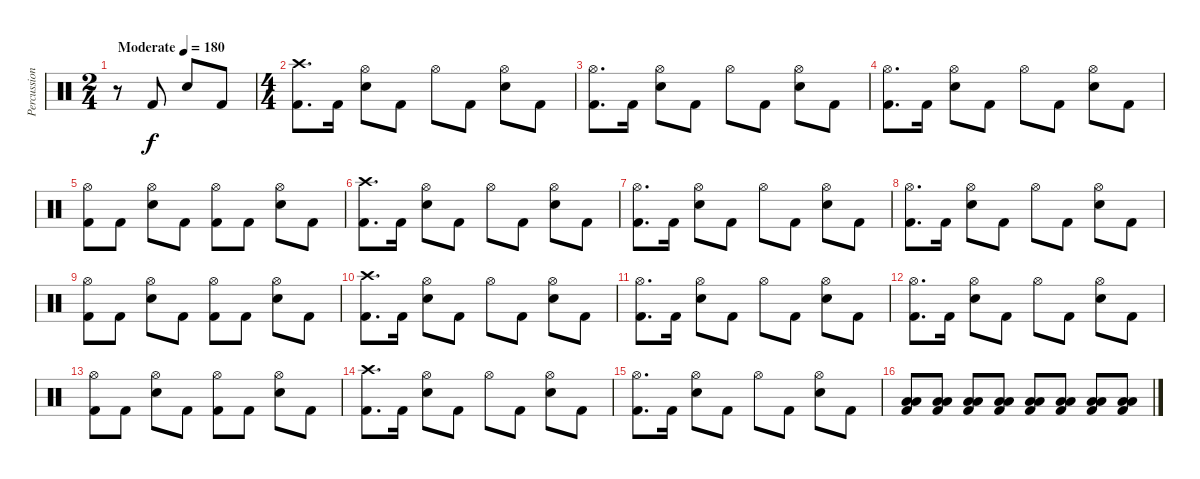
\track ("Percussion" "Percussion") {instrument percussion}
\staff {score}
\articulation defaults
\ts (2 4)
\tempo (180 "Moderate")
\clef neutral
\ks c
r.8{dy f} "Kick (hit) 2".8 "Electric Snare (hit)".8 "Kick (hit) 2".8 |
\ts (4 4)
("Crash high (hit)" "Kick (hit) 2").8{d} "Kick (hit) 2".16 ("Hi-Hat (open)" "Electric Snare (hit)").8 "Kick (hit) 2".8 "Hi-Hat (open)".8 "Kick (hit) 2".8 ("Hi-Hat (open)" "Electric Snare (hit)").8 "Kick (hit) 2".8 |
("Hi-Hat (open)" "Kick (hit) 2").8{d} "Kick (hit) 2".16 ("Hi-Hat (open)" "Electric Snare (hit)").8 "Kick (hit) 2".8 "Hi-Hat (open)".8 "Kick (hit) 2".8 ("Hi-Hat (open)" "Electric Snare (hit)").8 "Kick (hit) 2".8 |
("Hi-Hat (open)" "Kick (hit) 2").8{d} "Kick (hit) 2".16 ("Hi-Hat (open)" "Electric Snare (hit)").8 "Kick (hit) 2".8 "Hi-Hat (open)".8 "Kick (hit) 2".8 ("Hi-Hat (open)" "Electric Snare (hit)").8 "Kick (hit) 2".8 |
("Hi-Hat (open)" "Kick (hit) 2").8 "Kick (hit) 2".8 ("Hi-Hat (open)" "Electric Snare (hit)").8 "Kick (hit) 2".8 ("Hi-Hat (open)" "Kick (hit) 2").8 "Kick (hit) 2".8 ("Hi-Hat (open)" "Electric Snare (hit)").8 "Kick (hit) 2".8 |
("Crash high (hit)" "Kick (hit) 2").8{d} "Kick (hit) 2".16 ("Hi-Hat (open)" "Electric Snare (hit)").8 "Kick (hit) 2".8 "Hi-Hat (open)".8 "Kick (hit) 2".8 ("Hi-Hat (open)" "Electric Snare (hit)").8 "Kick (hit) 2".8 |
("Hi-Hat (open)" "Kick (hit) 2").8{d} "Kick (hit) 2".16 ("Hi-Hat (open)" "Electric Snare (hit)").8 "Kick (hit) 2".8 "Hi-Hat (open)".8 "Kick (hit) 2".8 ("Hi-Hat (open)" "Electric Snare (hit)").8 "Kick (hit) 2".8 |
("Hi-Hat (open)" "Kick (hit) 2").8{d} "Kick (hit) 2".16 ("Hi-Hat (open)" "Electric Snare (hit)").8 "Kick (hit) 2".8 "Hi-Hat (open)".8 "Kick (hit) 2".8 ("Hi-Hat (open)" "Electric Snare (hit)").8 "Kick (hit) 2".8 |
("Hi-Hat (open)" "Kick (hit) 2").8 "Kick (hit) 2".8 ("Hi-Hat (open)" "Electric Snare (hit)").8 "Kick (hit) 2".8 ("Hi-Hat (open)" "Kick (hit) 2").8 "Kick (hit) 2".8 ("Hi-Hat (open)" "Electric Snare (hit)").8 "Kick (hit) 2".8 |
("Crash high (hit)" "Kick (hit) 2").8{d} "Kick (hit) 2".16 ("Hi-Hat (open)" "Electric Snare (hit)").8 "Kick (hit) 2".8 "Hi-Hat (open)".8 "Kick (hit) 2".8 ("Hi-Hat (open)" "Electric Snare (hit)").8 "Kick (hit) 2".8 |
("Hi-Hat (open)" "Kick (hit) 2").8{d} "Kick (hit) 2".16 ("Hi-Hat (open)" "Electric Snare (hit)").8 "Kick (hit) 2".8 "Hi-Hat (open)".8 "Kick (hit) 2".8 ("Hi-Hat (open)" "Electric Snare (hit)").8 "Kick (hit) 2".8 |
("Hi-Hat (open)" "Kick (hit) 2").8{d} "Kick (hit) 2".16 ("Hi-Hat (open)" "Electric Snare (hit)").8 "Kick (hit) 2".8 "Hi-Hat (open)".8 "Kick (hit) 2".8 ("Hi-Hat (open)" "Electric Snare (hit)").8 "Kick (hit) 2".8 |
("Hi-Hat (open)" "Kick (hit) 2").8 "Kick (hit) 2".8 ("Hi-Hat (open)" "Electric Snare (hit)").8 "Kick (hit) 2".8 ("Hi-Hat (open)" "Kick (hit) 2").8 "Kick (hit) 2".8 ("Hi-Hat (open)" "Electric Snare (hit)").8 "Kick (hit) 2".8 |
("Crash high (hit)" "Kick (hit) 2").8{d} "Kick (hit) 2".16 ("Hi-Hat (open)" "Electric Snare (hit)").8 "Kick (hit) 2".8 "Hi-Hat (open)".8 "Kick (hit) 2".8 ("Hi-Hat (open)" "Electric Snare (hit)").8 "Kick (hit) 2".8 |
("Hi-Hat (open)" "Kick (hit) 2").8{d} "Kick (hit) 2".16 ("Hi-Hat (open)" "Electric Snare (hit)").8 "Kick (hit) 2".8 "Hi-Hat (open)".8 "Kick (hit) 2".8 ("Hi-Hat (open)" "Electric Snare (hit)").8 "Kick (hit) 2".8 |
("Low Tom (hit)" "Low Floor Tom (hit)" "Kick (hit) 2").8 ("Low Tom (hit)" "Low Floor Tom (hit)" "Kick (hit) 2").8 ("Low Tom (hit)" "Low Floor Tom (hit)" "Kick (hit) 2").8 ("Low Tom (hit)" "Low Floor Tom (hit)" "Kick (hit) 2").8 ("Low Tom (hit)" "Low Floor Tom (hit)" "Kick (hit) 2").8 ("Low Tom (hit)" "Low Floor Tom (hit)" "Kick (hit) 2").8 ("Low Tom (hit)" "Low Floor Tom (hit)" "Kick (hit) 2").8 ("Low Tom (hit)" "Low Floor Tom (hit)" "Kick (hit) 2").8
